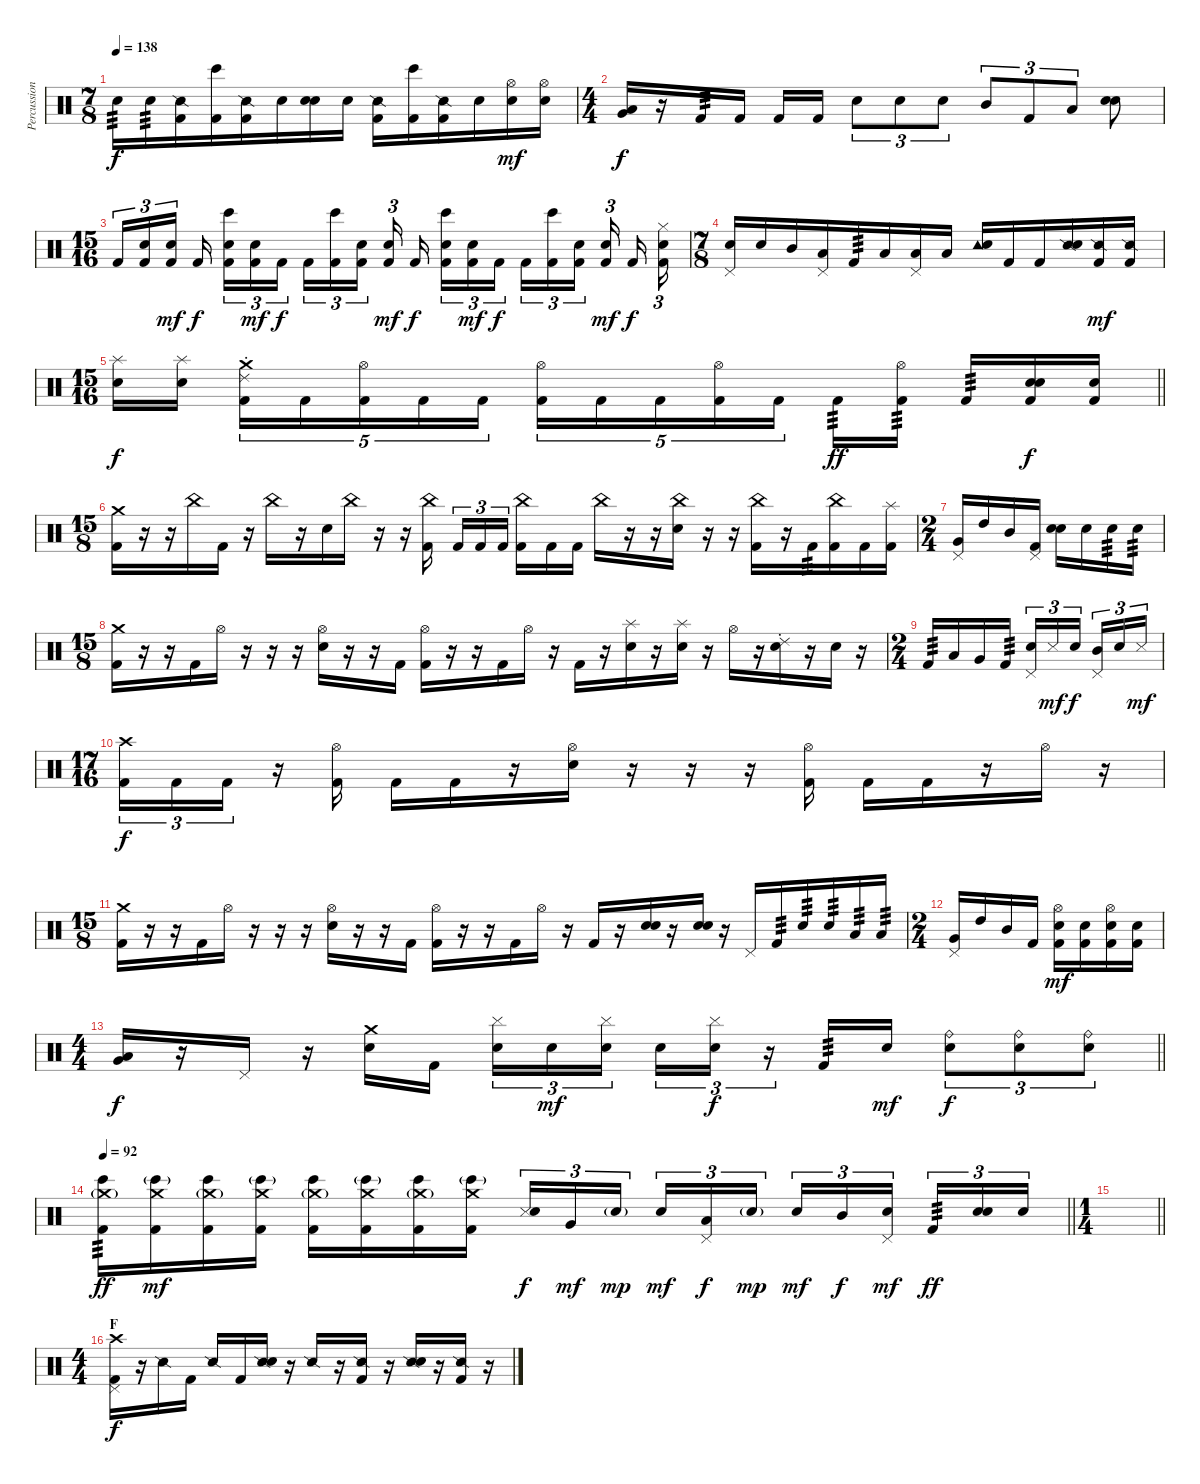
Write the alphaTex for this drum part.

\track ("Percussion" "Percussion") {instrument percussion}
\staff {score}
\articulation defaults
\ts (7 8)
\tempo 138
\clef neutral
\ks c "Snare (hit) 2".16{tp 3 dy f} "Snare (hit) 2".16{tp 3}
("Snare (side stick) 2" "Kick (hit) 2").16 ("Bongo High (hit)" "Kick (hit) 2").16 ("Snare (side stick) 2" "Kick (hit) 2").16 "Snare (hit) 2".16 ("Snare (hit)" "Snare (hit) 2").16 "Snare (hit) 2".16 ("Snare (side stick) 2" "Kick (hit) 2").16 ("Bongo High (hit)" "Kick (hit) 2").16 ("Snare (side stick) 2" "Kick (hit) 2").16 "Snare (hit) 2".16 ("Hi-Hat (open)" "Snare (hit) 2").16{dy mf} ("Hi-Hat (open)" "Snare (hit) 2").16 |
\ts (4 4)
("Low Tom (hit)" "Very Low Tom (hit)").16{bu 60 dy f} r.16 "Kick (hit) 2".16{tp 3} "Kick (hit) 2".16 "Kick (hit) 2".16 "Kick (hit) 2".16 "Snare (hit) 2".8{tu (3 2)} "Snare (hit) 2".8{tu (3 2)} "Snare (hit) 2".8{tu (3 2)} "Mid Tom (hit)".8{tu (3 2)} "Kick (hit) 2".8{tu (3 2)} "Low Tom (hit)".8{tu (3 2)} ("Snare (hit)" "Snare (hit) 2").8 |
\ts (15 16)
"Kick (hit) 2".16{tu (3 2)} ("Snare (hit) 2" "Kick (hit) 2").16{tu (3 2)} ("Snare (hit) 2" "Kick (hit) 2").16{tu (3 2) dy mf beam splitsecondary} "Kick (hit) 2".16{dy f} ("Bongo High (hit)" "Snare (hit) 2" "Kick (hit) 2").16{tu (3 2)} ("Snare (hit) 2" "Kick (hit) 2").16{tu (3 2) dy mf} "Kick (hit) 2".16{tu (3 2) dy f beam splitsecondary} "Kick (hit) 2".16{tu (3 2)} ("Bongo High (hit)" "Kick (hit) 2").16{tu (3 2)} ("Snare (hit) 2" "Kick (hit) 2").16{tu (3 2) beam splitsecondary} ("Snare (hit) 2" "Kick (hit) 2").16{tu (3 2) dy mf beam splitsecondary} "Kick (hit) 2".16{dy f} ("Bongo High (hit)" "Snare (hit) 2" "Kick (hit) 2").16{tu (3 2)} ("Snare (hit) 2" "Kick (hit) 2").16{tu (3 2) dy mf} "Kick (hit) 2".16{tu (3 2) dy f beam splitsecondary} "Kick (hit) 2".16{tu (3 2)} ("Bongo High (hit)" "Kick (hit) 2").16{tu (3 2)} ("Snare (hit) 2" "Kick (hit) 2").16{tu (3 2) beam splitsecondary} ("Snare (hit) 2" "Kick (hit) 2").16{tu (3 2) dy mf beam splitsecondary} "Kick (hit) 2".16{dy f} ("Hi-Hat (closed)" "Snare (hit) 2" "Kick (hit) 2").16{tu (3 2)} |
\ts (7 8)
("Pedal Hi-Hat (hit)" "Snare (hit) 2").16 "Snare (hit) 2".16 "Mid Tom (hit)".16 ("Pedal Hi-Hat (hit)" "Low Tom (hit)").16 "Kick (hit) 2".16{tp 3} "Low Tom (hit)".16 ("Pedal Hi-Hat (hit)" "Low Tom (hit)").16 "Low Tom (hit)".16 ("Tambourine (hit)" "Snare (hit) 2").16 "Kick (hit) 2".16 "Kick (hit) 2".16 ("Snare (side stick) 2" "Snare (hit) 2").16 ("Snare (side stick) 2" "Kick (hit) 2").16{dy mf} ("Snare (side stick) 2" "Kick (hit) 2").16 |
\ts (15 16)
\barLineRight lightlight
("Splash (hit)" "Snare (hit) 2").16{dy f} ("Splash (hit)" "Snare (hit) 2").16{beam splitsecondary} ("Crash medium (hit)" "Ride (choke) 2" "Kick (hit) 2").16{tu (5 4)} "Kick (hit) 2".16{tu (5 4)} ("Hi-Hat (open)" "Kick (hit) 2").16{tu (5 4)} "Kick (hit) 2".16{tu (5 4)} "Kick (hit) 2".16{tu (5 4)} ("Hi-Hat (open)" "Kick (hit) 2").16{tu (5 4)} "Kick (hit) 2".16{tu (5 4)} "Kick (hit) 2".16{tu (5 4)} ("Hi-Hat (open)" "Kick (hit) 2").16{tu (5 4)} "Kick (hit) 2".16{tu (5 4) beam splitsecondary} "Kick (hit) 2".16{tp 3 dy ff} ("Hi-Hat (open)" "Kick (hit) 2").16{tp 3} "Kick (hit) 2".16{tp 3} ("Snare (hit)" "Snare (hit) 2" "Kick (hit) 2").16{dy f} ("Snare (hit) 2" "Kick (hit) 2").16 |
\ts (15 8)
("Crash medium (hit)" "Kick (hit) 2").16 r.16 r.16 "China (hit)".16 "Kick (hit) 2".16 r.16 "China (hit)".16 r.16 "Snare (hit) 2".16 "China (hit)".16 r.16 r.16 ("China (hit)" "Kick (hit) 2").16{beam splitsecondary} "Kick (hit) 2".16{tu (3 2)} "Kick (hit) 2".16{tu (3 2)} "Kick (hit) 2".16{tu (3 2) beam splitsecondary} ("China (hit)" "Kick (hit) 2").16 "Kick (hit) 2".16 "Kick (hit) 2".16 "China (hit)".16 r.16 r.16 ("China (hit)" "Snare (hit) 2").16 r.16 r.16 ("China (hit)" "Kick (hit) 2").16 r.16 "Kick (hit) 2".16{tp 3} ("China (hit)" "Kick (hit) 2").16 "Kick (hit) 2".16 ("Splash (hit)" "Kick (hit) 2").16 |
\ts (2 4)
("Pedal Hi-Hat (hit)" "Very Low Tom (hit)").16 "High Tom (hit)".16 "Mid Tom (hit)".16 ("Pedal Hi-Hat (hit)" "Kick (hit) 2").16 ("Snare (hit)" "Snare (hit) 2").16 "Snare (hit) 2".16 "Snare (hit) 2".16{tp 3} "Snare (hit) 2".16{tp 3} |
\ts (15 8)
("Crash medium (hit)" "Kick (hit) 2").16 r.16 r.16 "Kick (hit) 2".16 "Hi-Hat (open)".16 r.16 r.16 r.16 ("Hi-Hat (open)" "Snare (hit) 2").16 r.16 r.16 "Kick (hit) 2".16 ("Hi-Hat (open)" "Kick (hit) 2").16 r.16 r.16 "Kick (hit) 2".16 "Hi-Hat (open)".16 r.16 "Kick (hit) 2".16 r.16 ("Splash (hit)" "Snare (hit) 2").16 r.16 ("Splash (hit)" "Snare (hit) 2").16 r.16 "Hi-Hat (open)".16 r.16 ("Ride (choke) 2" "Snare (hit) 2").16 r.16 "Snare (hit)".16 r.16 |
\ts (2 4)
"Kick (hit) 2".16{tp 3} "Low Tom (hit)".16 "Very Low Tom (hit)".16 "Kick (hit) 2".16{tp 3} ("Pedal Hi-Hat (hit)" "Snare (hit) 2").16{tu (3 2)} "Metronome (hit)".16{tu (3 2) dy mf} "Snare (hit) 2".16{tu (3 2) dy f beam splitsecondary} ("Pedal Hi-Hat (hit)" "Mid Tom (hit)").16{tu (3 2)} "Snare (hit) 2".16{tu (3 2)} "Metronome (hit)".16{tu (3 2) dy mf} |
\ts (17 16)
("Crash high (hit)" "Kick (hit) 2").16{tu (3 2) dy f} "Kick (hit) 2".16{tu (3 2)} "Kick (hit) 2".16{tu (3 2)} r.16 ("Hi-Hat (open)" "Kick (hit) 2").16 "Kick (hit) 2".16 "Kick (hit) 2".16 r.16 ("Hi-Hat (open)" "Snare (hit) 2").16 r.16 r.16 r.16 ("Hi-Hat (open)" "Kick (hit) 2").16 "Kick (hit) 2".16 "Kick (hit) 2".16 r.16 "Hi-Hat (open)".16 r.16 |
\ts (15 8)
("Crash medium (hit)" "Kick (hit) 2").16 r.16 r.16 "Kick (hit) 2".16 "Hi-Hat (open)".16 r.16 r.16 r.16 ("Hi-Hat (open)" "Snare (hit) 2").16 r.16 r.16 "Kick (hit) 2".16 ("Hi-Hat (open)" "Kick (hit) 2").16 r.16 r.16 "Kick (hit) 2".16 "Hi-Hat (open)".16 r.16 "Kick (hit) 2".16 r.16 ("Snare (hit)" "Snare (hit) 2").16 r.16 ("Snare (hit)" "Snare (hit) 2").16 r.16 "Pedal Hi-Hat (hit)".16 "Kick (hit) 2".16{tp 3} "Snare (hit) 2".16{tp 3} "Snare (hit) 2".16{tp 3} "Low Tom (hit)".16{tp 3} "Low Tom (hit)".16{tp 3} |
\ts (2 4)
("Pedal Hi-Hat (hit)" "Very Low Tom (hit)").16 "High Tom (hit)".16 "Mid Tom (hit)".16 "Kick (hit) 2".16 ("Hi-Hat (open)" "Snare (hit) 2" "Kick (hit) 2").16{dy mf} ("Snare (hit) 2" "Kick (hit) 2").16 ("Hi-Hat (open)" "Snare (hit) 2" "Kick (hit) 2").16 ("Snare (hit) 2" "Kick (hit) 2").16 |
\ts (4 4)
\barLineRight lightlight
("Low Tom (hit)" "Very Low Tom (hit)").16{bu 60 dy f} r.16 "Pedal Hi-Hat (hit)".16 r.16 ("Crash medium (hit)" "Snare (hit) 2").16 "Kick (hit) 2".16{beam splitsecondary} ("Cymbal (hit)" "Snare (hit) 2").16{tu (3 2)} "Snare (hit) 2".16{tu (3 2) dy mf} ("Cymbal (hit)" "Snare (hit) 2").16{tu (3 2)} "Snare (hit) 2".16{tu (3 2)} ("Cymbal (hit)" "Snare (hit) 2").16{tu (3 2) dy f} r.16{tu (3 2)} "Kick (hit) 2".16{tp 3} "Snare (hit) 2".16{dy mf} ("Ride (bell)" "Snare (hit) 2").8{tu (3 2) dy f} ("Ride (bell)" "Snare (hit) 2").8{tu (3 2)} ("Ride (bell)" "Snare (hit) 2").8{tu (3 2)} |
\tempo 92
\barLineRight lightlight
("Crash medium (hit)"{g} "Bongo High (hit)" "Kick (hit) 2").16{tp 3 dy ff} ("Crash medium (hit)" "Bongo High (hit)"{g} "Kick (hit) 2").16{dy mf} ("Crash medium (hit)"{g} "Bongo High (hit)" "Kick (hit) 2").16 ("Crash medium (hit)" "Bongo High (hit)"{g} "Kick (hit) 2").16 ("Crash medium (hit)"{g} "Bongo High (hit)" "Kick (hit) 2").16 ("Crash medium (hit)" "Bongo High (hit)"{g} "Kick (hit) 2").16 ("Crash medium (hit)"{g} "Bongo High (hit)" "Kick (hit) 2").16 ("Crash medium (hit)" "Bongo High (hit)"{g} "Kick (hit) 2").16 ("Metronome (hit)" "Snare (hit) 2").16{tu (3 2) bu 60 dy f} "Very Low Tom (hit)".16{tu (3 2) dy mf} "Snare (hit) 2"{g}.16{tu (3 2) dy mp beam splitsecondary} "Snare (hit) 2".16{tu (3 2) dy mf} ("Pedal Hi-Hat (hit)" "Low Tom (hit)").16{tu (3 2) dy f} "Snare (hit) 2"{g}.16{tu (3 2) dy mp} "Snare (hit) 2".16{tu (3 2) dy mf} "Mid Tom (hit)".16{tu (3 2) dy f} ("Pedal Hi-Hat (hit)" "Snare (hit) 2").16{tu (3 2) dy mf beam splitsecondary} "Kick (hit) 2".16{tu (3 2) tp 3 dy ff} ("Snare (hit)" "Snare (hit) 2").16{tu (3 2)} "Snare (hit) 2".16{tu (3 2)} |
\ts (1 4)
\barLineRight lightlight
|
\ts (4 4)
\section ("" "F")
("Crash high (hit)" "Pedal Hi-Hat (hit)" "Kick (hit) 2").16{dy f} r.16 "Snare (side stick) 2".16 "Kick (hit) 2".16 "Snare (side stick) 2".16 "Kick (hit) 2".16 ("Snare (side stick) 2" "Snare (hit) 2").16 r.16 "Snare (side stick) 2".16 r.16 ("Snare (side stick) 2" "Kick (hit) 2").16 r.16 ("Snare (side stick) 2" "Snare (hit) 2").16 r.16 ("Snare (side stick) 2" "Kick (hit) 2").16 r.16
